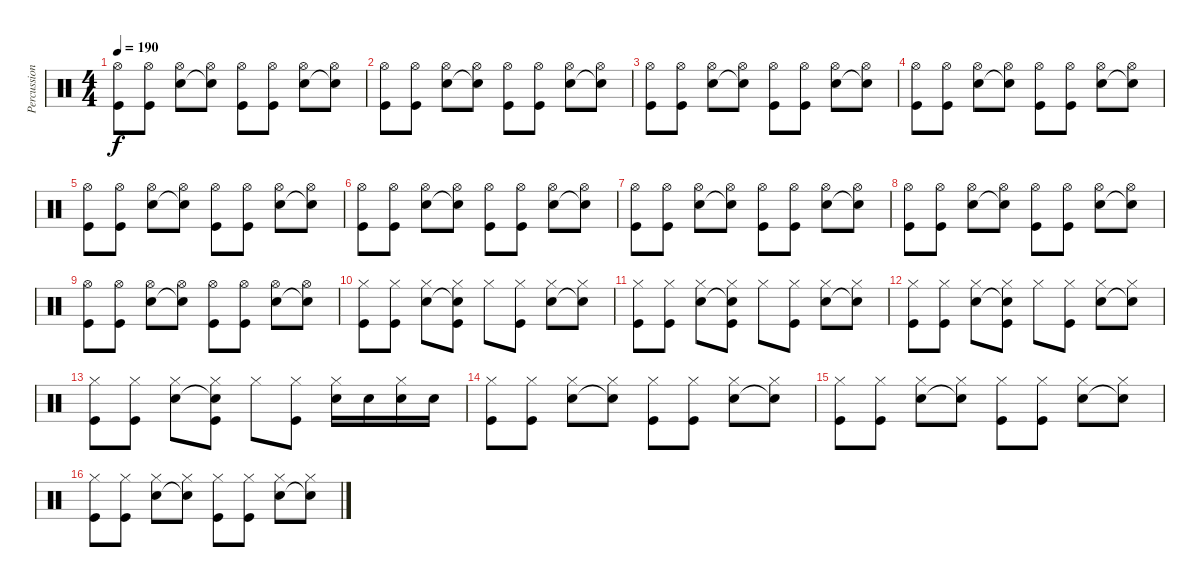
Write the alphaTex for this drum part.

\track ("Percussions" "Percussion") {instrument percussion}
\staff {score}
\articulation defaults
\ts (4 4)
\tempo 190
\clef neutral
\ks c
("Hi-Hat (open)" "Kick (hit)").8{dy f} ("Hi-Hat (open)" "Kick (hit)").8 ("Hi-Hat (open)" "Electric Snare (hit)").8 ("Hi-Hat (open)" "Snare (hit)"{t}).8 ("Hi-Hat (open)" "Kick (hit)").8 ("Hi-Hat (open)" "Kick (hit)").8 ("Hi-Hat (open)" "Electric Snare (hit)").8 ("Hi-Hat (open)" "Snare (hit)"{t}).8 |
("Hi-Hat (open)" "Kick (hit)").8 ("Hi-Hat (open)" "Kick (hit)").8 ("Hi-Hat (open)" "Electric Snare (hit)").8 ("Hi-Hat (open)" "Snare (hit)"{t}).8 ("Hi-Hat (open)" "Kick (hit)").8 ("Hi-Hat (open)" "Kick (hit)").8 ("Hi-Hat (open)" "Electric Snare (hit)").8 ("Hi-Hat (open)" "Snare (hit)"{t}).8 |
("Hi-Hat (open)" "Kick (hit)").8 ("Hi-Hat (open)" "Kick (hit)").8 ("Hi-Hat (open)" "Electric Snare (hit)").8 ("Hi-Hat (open)" "Snare (hit)"{t}).8 ("Hi-Hat (open)" "Kick (hit)").8 ("Hi-Hat (open)" "Kick (hit)").8 ("Hi-Hat (open)" "Electric Snare (hit)").8 ("Hi-Hat (open)" "Snare (hit)"{t}).8 |
("Hi-Hat (open)" "Kick (hit)").8 ("Hi-Hat (open)" "Kick (hit)").8 ("Hi-Hat (open)" "Electric Snare (hit)").8 ("Hi-Hat (open)" "Snare (hit)"{t}).8 ("Hi-Hat (open)" "Kick (hit)").8 ("Hi-Hat (open)" "Kick (hit)").8 ("Hi-Hat (open)" "Electric Snare (hit)").8 ("Hi-Hat (open)" "Snare (hit)"{t}).8 |
("Hi-Hat (open)" "Kick (hit)").8 ("Hi-Hat (open)" "Kick (hit)").8 ("Hi-Hat (open)" "Electric Snare (hit)").8 ("Hi-Hat (open)" "Snare (hit)"{t}).8 ("Hi-Hat (open)" "Kick (hit)").8 ("Hi-Hat (open)" "Kick (hit)").8 ("Hi-Hat (open)" "Electric Snare (hit)").8 ("Hi-Hat (open)" "Snare (hit)"{t}).8 |
("Hi-Hat (open)" "Kick (hit)").8 ("Hi-Hat (open)" "Kick (hit)").8 ("Hi-Hat (open)" "Electric Snare (hit)").8 ("Hi-Hat (open)" "Snare (hit)"{t}).8 ("Hi-Hat (open)" "Kick (hit)").8 ("Hi-Hat (open)" "Kick (hit)").8 ("Hi-Hat (open)" "Electric Snare (hit)").8 ("Hi-Hat (open)" "Snare (hit)"{t}).8 |
("Hi-Hat (open)" "Kick (hit)").8 ("Hi-Hat (open)" "Kick (hit)").8 ("Hi-Hat (open)" "Electric Snare (hit)").8 ("Hi-Hat (open)" "Snare (hit)"{t}).8 ("Hi-Hat (open)" "Kick (hit)").8 ("Hi-Hat (open)" "Kick (hit)").8 ("Hi-Hat (open)" "Electric Snare (hit)").8 ("Hi-Hat (open)" "Snare (hit)"{t}).8 |
("Hi-Hat (open)" "Kick (hit)").8 ("Hi-Hat (open)" "Kick (hit)").8 ("Hi-Hat (open)" "Electric Snare (hit)").8 ("Hi-Hat (open)" "Snare (hit)"{t}).8 ("Hi-Hat (open)" "Kick (hit)").8 ("Hi-Hat (open)" "Kick (hit)").8 ("Hi-Hat (open)" "Electric Snare (hit)").8 ("Hi-Hat (open)" "Snare (hit)"{t}).8 |
("Hi-Hat (open)" "Kick (hit)").8 ("Hi-Hat (open)" "Kick (hit)").8 ("Hi-Hat (open)" "Electric Snare (hit)").8 ("Hi-Hat (open)" "Snare (hit)"{t}).8 ("Hi-Hat (open)" "Kick (hit)").8 ("Hi-Hat (open)" "Kick (hit)").8 ("Hi-Hat (open)" "Electric Snare (hit)").8 ("Hi-Hat (open)" "Snare (hit)"{t}).8 |
("Hi-Hat (closed)" "Kick (hit)").8 ("Hi-Hat (closed)" "Kick (hit)").8 ("Hi-Hat (closed)" "Electric Snare (hit)").8 ("Hi-Hat (closed)" "Snare (hit)"{t} "Kick (hit)").8 "Hi-Hat (closed)".8 ("Hi-Hat (closed)" "Kick (hit)").8 ("Hi-Hat (closed)" "Electric Snare (hit)").8 ("Hi-Hat (closed)" "Snare (hit)"{t}).8 |
("Hi-Hat (closed)" "Kick (hit)").8 ("Hi-Hat (closed)" "Kick (hit)").8 ("Hi-Hat (closed)" "Electric Snare (hit)").8 ("Hi-Hat (closed)" "Snare (hit)"{t} "Kick (hit)").8 "Hi-Hat (closed)".8 ("Hi-Hat (closed)" "Kick (hit)").8 ("Hi-Hat (closed)" "Electric Snare (hit)").8 ("Hi-Hat (closed)" "Snare (hit)"{t}).8 |
("Hi-Hat (closed)" "Kick (hit)").8 ("Hi-Hat (closed)" "Kick (hit)").8 ("Hi-Hat (closed)" "Electric Snare (hit)").8 ("Hi-Hat (closed)" "Snare (hit)"{t} "Kick (hit)").8 "Hi-Hat (closed)".8 ("Hi-Hat (closed)" "Kick (hit)").8 ("Hi-Hat (closed)" "Electric Snare (hit)").8 ("Hi-Hat (closed)" "Snare (hit)"{t}).8 |
("Hi-Hat (closed)" "Kick (hit)").8 ("Hi-Hat (closed)" "Kick (hit)").8 ("Hi-Hat (closed)" "Electric Snare (hit)").8 ("Hi-Hat (closed)" "Snare (hit)"{t} "Kick (hit)").8 "Hi-Hat (closed)".8 ("Hi-Hat (closed)" "Kick (hit)").8 ("Hi-Hat (closed)" "Electric Snare (hit)").16 "Electric Snare (hit)".16 ("Hi-Hat (closed)" "Electric Snare (hit)").16 "Electric Snare (hit)".16 |
("Hi-Hat (closed)" "Kick (hit)").8 ("Hi-Hat (closed)" "Kick (hit)").8 ("Hi-Hat (closed)" "Electric Snare (hit)").8 ("Hi-Hat (closed)" "Snare (hit)"{t}).8 ("Hi-Hat (closed)" "Kick (hit)").8 ("Hi-Hat (closed)" "Kick (hit)").8 ("Hi-Hat (closed)" "Electric Snare (hit)").8 ("Hi-Hat (closed)" "Snare (hit)"{t}).8 |
("Hi-Hat (closed)" "Kick (hit)").8 ("Hi-Hat (closed)" "Kick (hit)").8 ("Hi-Hat (closed)" "Electric Snare (hit)").8 ("Hi-Hat (closed)" "Snare (hit)"{t}).8 ("Hi-Hat (closed)" "Kick (hit)").8 ("Hi-Hat (closed)" "Kick (hit)").8 ("Hi-Hat (closed)" "Electric Snare (hit)").8 ("Hi-Hat (closed)" "Snare (hit)"{t}).8 |
("Hi-Hat (closed)" "Kick (hit)").8 ("Hi-Hat (closed)" "Kick (hit)").8 ("Hi-Hat (closed)" "Electric Snare (hit)").8 ("Hi-Hat (closed)" "Snare (hit)"{t}).8 ("Hi-Hat (closed)" "Kick (hit)").8 ("Hi-Hat (closed)" "Kick (hit)").8 ("Hi-Hat (closed)" "Electric Snare (hit)").8 ("Hi-Hat (closed)" "Snare (hit)"{t}).8
